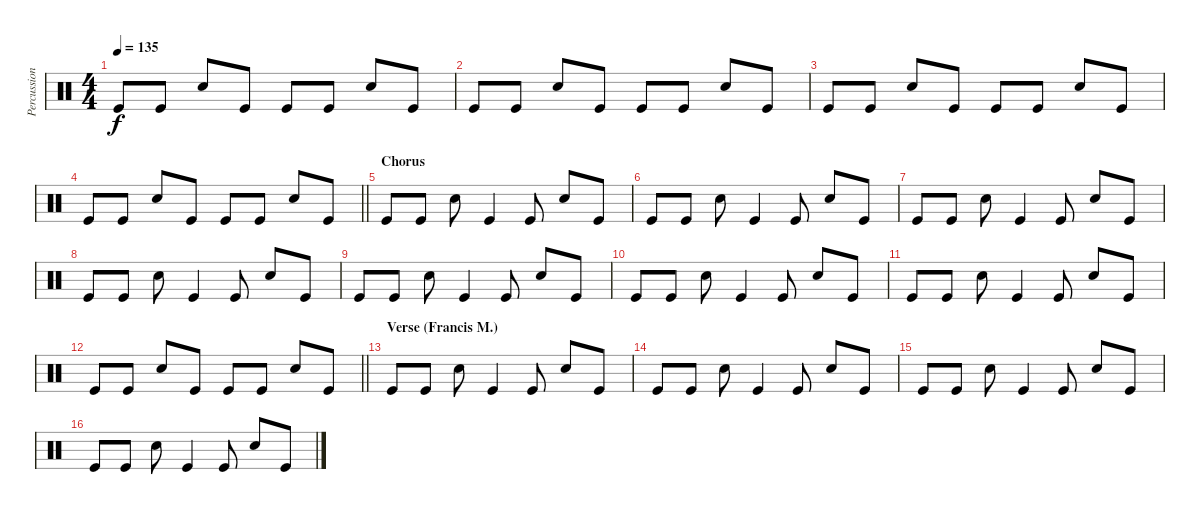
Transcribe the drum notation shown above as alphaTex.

\track ("Percussion" "Percussion") {instrument percussion}
\staff {score}
\articulation defaults
\ts (4 4)
\tempo 135
\clef neutral
\ks c "Kick (hit)".8{dy f} "Kick (hit)".8 "Snare (hit) 2".8 "Kick (hit)".8 "Kick (hit)".8 "Kick (hit)".8 "Snare (hit) 2".8 "Kick (hit)".8
|
"Kick (hit)".8 "Kick (hit)".8 "Snare (hit) 2".8 "Kick (hit)".8 "Kick (hit)".8 "Kick (hit)".8 "Snare (hit) 2".8 "Kick (hit)".8 |
"Kick (hit)".8 "Kick (hit)".8 "Snare (hit) 2".8 "Kick (hit)".8 "Kick (hit)".8 "Kick (hit)".8 "Snare (hit) 2".8 "Kick (hit)".8 |
\barLineRight lightlight "Kick (hit)".8 "Kick (hit)".8 "Snare (hit) 2".8 "Kick (hit)".8 "Kick (hit)".8 "Kick (hit)".8 "Snare (hit) 2".8 "Kick (hit)".8
|
\section ("" "Chorus")
"Kick (hit)".8 "Kick (hit)".8 "Snare (hit) 2".8 "Kick (hit)".4 "Kick (hit)".8 "Snare (hit) 2".8 "Kick (hit)".8 |
"Kick (hit)".8 "Kick (hit)".8 "Snare (hit) 2".8 "Kick (hit)".4 "Kick (hit)".8 "Snare (hit) 2".8 "Kick (hit)".8 |
"Kick (hit)".8 "Kick (hit)".8 "Snare (hit) 2".8 "Kick (hit)".4 "Kick (hit)".8 "Snare (hit) 2".8 "Kick (hit)".8 |
"Kick (hit)".8 "Kick (hit)".8 "Snare (hit) 2".8 "Kick (hit)".4 "Kick (hit)".8 "Snare (hit) 2".8 "Kick (hit)".8 |
"Kick (hit)".8 "Kick (hit)".8 "Snare (hit) 2".8 "Kick (hit)".4 "Kick (hit)".8 "Snare (hit) 2".8 "Kick (hit)".8 |
"Kick (hit)".8 "Kick (hit)".8 "Snare (hit) 2".8 "Kick (hit)".4 "Kick (hit)".8 "Snare (hit) 2".8 "Kick (hit)".8 |
"Kick (hit)".8 "Kick (hit)".8 "Snare (hit) 2".8 "Kick (hit)".4 "Kick (hit)".8 "Snare (hit) 2".8 "Kick (hit)".8 |
\barLineRight lightlight "Kick (hit)".8 "Kick (hit)".8 "Snare (hit) 2".8 "Kick (hit)".8 "Kick (hit)".8 "Kick (hit)".8 "Snare (hit) 2".8 "Kick (hit)".8
|
\section ("" "Verse (Francis M.)")
"Kick (hit)".8 "Kick (hit)".8 "Snare (hit) 2".8 "Kick (hit)".4 "Kick (hit)".8 "Snare (hit) 2".8 "Kick (hit)".8 |
"Kick (hit)".8 "Kick (hit)".8 "Snare (hit) 2".8 "Kick (hit)".4 "Kick (hit)".8 "Snare (hit) 2".8 "Kick (hit)".8 |
"Kick (hit)".8 "Kick (hit)".8 "Snare (hit) 2".8 "Kick (hit)".4 "Kick (hit)".8 "Snare (hit) 2".8 "Kick (hit)".8 |
"Kick (hit)".8 "Kick (hit)".8 "Snare (hit) 2".8 "Kick (hit)".4 "Kick (hit)".8 "Snare (hit) 2".8 "Kick (hit)".8
